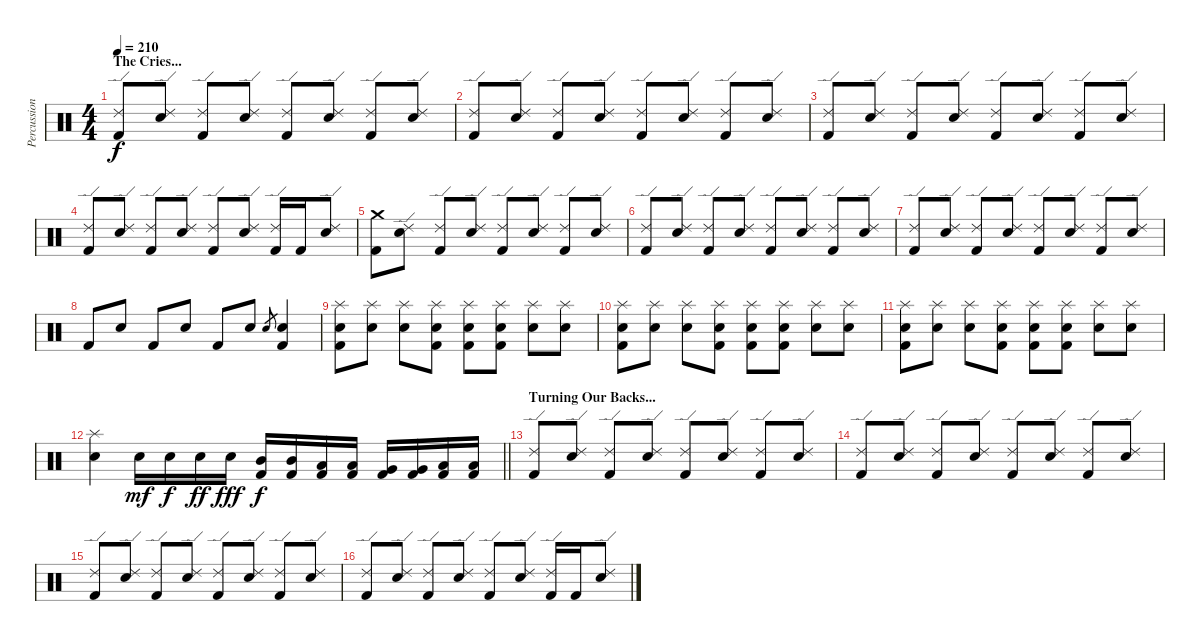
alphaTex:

\track ("Percussion" "Percussion") {instrument percussion}
\staff {score}
\articulation defaults
\ts (4 4)
\section ("" "The Cries...")
\tempo 210
\clef neutral
\ks c
("Ride (edge) 2" "Kick (hit) 2").8{dy f} ("Ride (edge) 2" "Electric Snare (hit)").8 ("Ride (edge) 2" "Kick (hit) 2").8 ("Ride (edge) 2" "Electric Snare (hit)").8 ("Ride (edge) 2" "Kick (hit) 2").8 ("Ride (edge) 2" "Electric Snare (hit)").8 ("Ride (edge) 2" "Kick (hit) 2").8 ("Ride (edge) 2" "Electric Snare (hit)").8 |
("Ride (edge) 2" "Kick (hit) 2").8 ("Ride (edge) 2" "Electric Snare (hit)").8 ("Ride (edge) 2" "Kick (hit) 2").8 ("Ride (edge) 2" "Electric Snare (hit)").8 ("Ride (edge) 2" "Kick (hit) 2").8 ("Ride (edge) 2" "Electric Snare (hit)").8 ("Ride (edge) 2" "Kick (hit) 2").8 ("Ride (edge) 2" "Electric Snare (hit)").8 |
("Ride (edge) 2" "Kick (hit) 2").8 ("Ride (edge) 2" "Electric Snare (hit)").8 ("Ride (edge) 2" "Kick (hit) 2").8 ("Ride (edge) 2" "Electric Snare (hit)").8 ("Ride (edge) 2" "Kick (hit) 2").8 ("Ride (edge) 2" "Electric Snare (hit)").8 ("Ride (edge) 2" "Kick (hit) 2").8 ("Ride (edge) 2" "Electric Snare (hit)").8 |
("Ride (edge) 2" "Kick (hit) 2").8 ("Ride (edge) 2" "Electric Snare (hit)").8 ("Ride (edge) 2" "Kick (hit) 2").8 ("Ride (edge) 2" "Electric Snare (hit)").8 ("Ride (edge) 2" "Kick (hit) 2").8 ("Ride (edge) 2" "Electric Snare (hit)").8 ("Ride (edge) 2" "Kick (hit) 2").16 "Kick (hit) 2".16 ("Ride (edge) 2" "Electric Snare (hit)").8 |
("Crash medium (hit)" "Kick (hit) 2").8 ("Ride (edge) 2" "Electric Snare (hit)").8 ("Ride (edge) 2" "Kick (hit) 2").8 ("Ride (edge) 2" "Electric Snare (hit)").8 ("Ride (edge) 2" "Kick (hit) 2").8 ("Ride (edge) 2" "Electric Snare (hit)").8 ("Ride (edge) 2" "Kick (hit) 2").8 ("Ride (edge) 2" "Electric Snare (hit)").8 |
("Ride (edge) 2" "Kick (hit) 2").8 ("Ride (edge) 2" "Electric Snare (hit)").8 ("Ride (edge) 2" "Kick (hit) 2").8 ("Ride (edge) 2" "Electric Snare (hit)").8 ("Ride (edge) 2" "Kick (hit) 2").8 ("Ride (edge) 2" "Electric Snare (hit)").8 ("Ride (edge) 2" "Kick (hit) 2").8 ("Ride (edge) 2" "Electric Snare (hit)").8 |
("Ride (edge) 2" "Kick (hit) 2").8 ("Ride (edge) 2" "Electric Snare (hit)").8 ("Ride (edge) 2" "Kick (hit) 2").8 ("Ride (edge) 2" "Electric Snare (hit)").8 ("Ride (edge) 2" "Kick (hit) 2").8 ("Ride (edge) 2" "Electric Snare (hit)").8 ("Ride (edge) 2" "Kick (hit) 2").8 ("Ride (edge) 2" "Electric Snare (hit)").8 |
"Kick (hit) 2".8 "Electric Snare (hit)".8 "Kick (hit) 2".8 "Electric Snare (hit)".8 "Kick (hit) 2".8 "Electric Snare (hit)".8 "Electric Snare (hit)".8{gr} ("Electric Snare (hit)" "Kick (hit) 2").4 |
("Splash (hit)" "Electric Snare (hit)" "Kick (hit) 2").8 ("Splash (hit)" "Electric Snare (hit)").8 ("Splash (hit)" "Electric Snare (hit)").8 ("Splash (hit)" "Electric Snare (hit)" "Kick (hit) 2").8 ("Splash (hit)" "Electric Snare (hit)" "Kick (hit) 2").8 ("Splash (hit)" "Electric Snare (hit)" "Kick (hit) 2").8 ("Splash (hit)" "Electric Snare (hit)").8 ("Splash (hit)" "Electric Snare (hit)").8 |
("Splash (hit)" "Electric Snare (hit)" "Kick (hit) 2").8 ("Splash (hit)" "Electric Snare (hit)").8 ("Splash (hit)" "Electric Snare (hit)").8 ("Splash (hit)" "Electric Snare (hit)" "Kick (hit) 2").8 ("Splash (hit)" "Electric Snare (hit)" "Kick (hit) 2").8 ("Splash (hit)" "Electric Snare (hit)" "Kick (hit) 2").8 ("Splash (hit)" "Electric Snare (hit)").8 ("Splash (hit)" "Electric Snare (hit)").8 |
("Splash (hit)" "Electric Snare (hit)" "Kick (hit) 2").8 ("Splash (hit)" "Electric Snare (hit)").8 ("Splash (hit)" "Electric Snare (hit)").8 ("Splash (hit)" "Electric Snare (hit)" "Kick (hit) 2").8 ("Splash (hit)" "Electric Snare (hit)" "Kick (hit) 2").8 ("Splash (hit)" "Electric Snare (hit)" "Kick (hit) 2").8 ("Splash (hit)" "Electric Snare (hit)").8 ("Splash (hit)" "Electric Snare (hit)").8 |
\barLineRight lightlight
("Splash (hit)" "Electric Snare (hit)").4 "Electric Snare (hit)".16{dy mf} "Electric Snare (hit)".16{dy f} "Electric Snare (hit)".16{dy ff} "Electric Snare (hit)".16{dy fff} ("Mid Tom (hit)" "Kick (hit) 2").16{dy f} ("Mid Tom (hit)" "Kick (hit) 2").16 ("Low Tom (hit)" "Kick (hit) 2").16 ("Low Tom (hit)" "Kick (hit) 2").16 ("Very Low Tom (hit)" "Kick (hit) 2").16 ("Very Low Tom (hit)" "Kick (hit) 2").16 ("Low Floor Tom (hit)" "Kick (hit) 2").16 ("Low Floor Tom (hit)" "Kick (hit) 2").16 |
\section ("" "Turning Our Backs...")
("Ride (edge) 2" "Kick (hit) 2").8 ("Ride (edge) 2" "Electric Snare (hit)").8 ("Ride (edge) 2" "Kick (hit) 2").8 ("Ride (edge) 2" "Electric Snare (hit)").8 ("Ride (edge) 2" "Kick (hit) 2").8 ("Ride (edge) 2" "Electric Snare (hit)").8 ("Ride (edge) 2" "Kick (hit) 2").8 ("Ride (edge) 2" "Electric Snare (hit)").8 |
("Ride (edge) 2" "Kick (hit) 2").8 ("Ride (edge) 2" "Electric Snare (hit)").8 ("Ride (edge) 2" "Kick (hit) 2").8 ("Ride (edge) 2" "Electric Snare (hit)").8 ("Ride (edge) 2" "Kick (hit) 2").8 ("Ride (edge) 2" "Electric Snare (hit)").8 ("Ride (edge) 2" "Kick (hit) 2").8 ("Ride (edge) 2" "Electric Snare (hit)").8 |
("Ride (edge) 2" "Kick (hit) 2").8 ("Ride (edge) 2" "Electric Snare (hit)").8 ("Ride (edge) 2" "Kick (hit) 2").8 ("Ride (edge) 2" "Electric Snare (hit)").8 ("Ride (edge) 2" "Kick (hit) 2").8 ("Ride (edge) 2" "Electric Snare (hit)").8 ("Ride (edge) 2" "Kick (hit) 2").8 ("Ride (edge) 2" "Electric Snare (hit)").8 |
("Ride (edge) 2" "Kick (hit) 2").8 ("Ride (edge) 2" "Electric Snare (hit)").8 ("Ride (edge) 2" "Kick (hit) 2").8 ("Ride (edge) 2" "Electric Snare (hit)").8 ("Ride (edge) 2" "Kick (hit) 2").8 ("Ride (edge) 2" "Electric Snare (hit)").8 ("Ride (edge) 2" "Kick (hit) 2").16 "Kick (hit) 2".16 ("Ride (edge) 2" "Electric Snare (hit)").8
